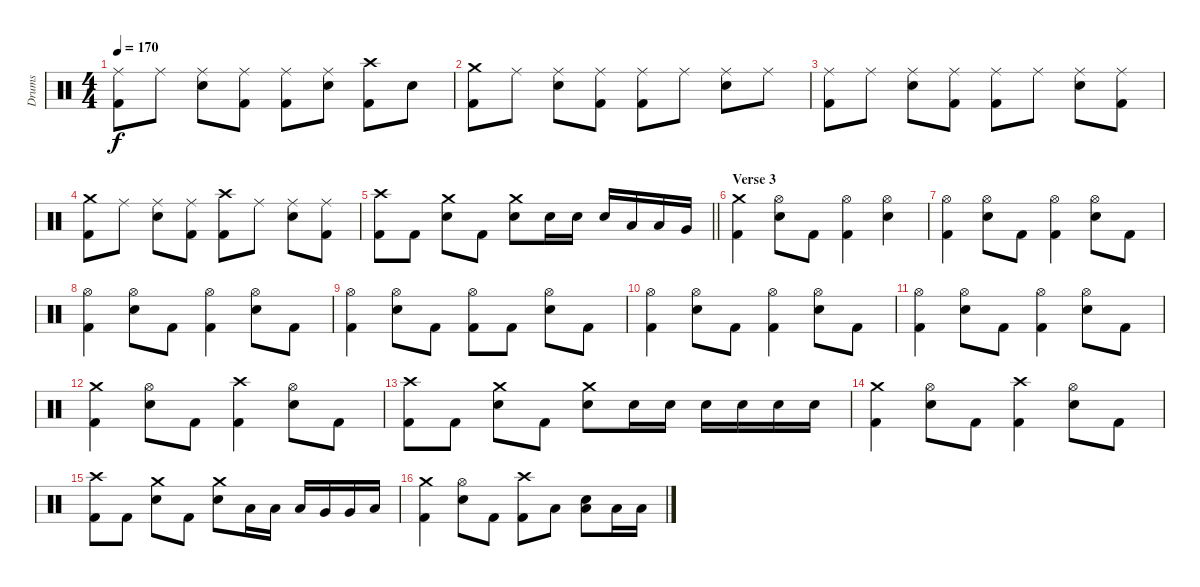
\track ("Drums" "Drums") {instrument percussion}
\staff {score}
\articulation defaults
\ts (4 4)
\tempo 170
\clef neutral
\ks c
("Ride (middle)" "Kick (hit) 2").8{dy f} "Ride (middle)".8 ("Ride (middle)" "Electric Snare (hit)").8 ("Ride (middle)" "Kick (hit) 2").8 ("Ride (middle)" "Kick (hit) 2").8 ("Ride (middle)" "Electric Snare (hit)").8 ("Crash high (hit)" "Kick (hit) 2").8 "Electric Snare (hit)".8 |
("Crash medium (hit)" "Kick (hit) 2").8 "Ride (middle)".8 ("Ride (middle)" "Electric Snare (hit)").8 ("Ride (middle)" "Kick (hit) 2").8 ("Ride (middle)" "Kick (hit) 2").8 "Ride (middle)".8 ("Ride (middle)" "Electric Snare (hit)").8 "Ride (middle)".8 |
("Ride (middle)" "Kick (hit) 2").8 "Ride (middle)".8 ("Ride (middle)" "Electric Snare (hit)").8 ("Ride (middle)" "Kick (hit) 2").8 ("Ride (middle)" "Kick (hit) 2").8 "Ride (middle)".8 ("Ride (middle)" "Electric Snare (hit)").8 ("Ride (middle)" "Kick (hit) 2").8 |
("Crash medium (hit)" "Kick (hit) 2").8 "Ride (middle)".8 ("Ride (middle)" "Electric Snare (hit)").8 ("Ride (middle)" "Kick (hit) 2").8 ("Crash high (hit)" "Kick (hit) 2").8 "Ride (middle)".8 ("Ride (middle)" "Electric Snare (hit)").8 ("Ride (middle)" "Kick (hit) 2").8 |
\barLineRight lightlight
("Crash high (hit)" "Kick (hit) 2").8 "Kick (hit) 2".8 ("Crash medium (hit)" "Electric Snare (hit)").8 "Kick (hit) 2".8 ("Crash medium (hit)" "Electric Snare (hit)").8 "Electric Snare (hit)".16 "Electric Snare (hit)".16 "Electric Snare (hit)".16 "Low Tom (hit)".16 "Low Tom (hit)".16 "Very Low Tom (hit)".16 |
\section ("" "Verse 3")
("Crash medium (hit)" "Kick (hit) 2").4 ("Hi-Hat (open)" "Electric Snare (hit)").8 "Kick (hit) 2".8 ("Hi-Hat (open)" "Kick (hit) 2").4 ("Hi-Hat (open)" "Electric Snare (hit)").4 |
("Hi-Hat (open)" "Kick (hit) 2").4 ("Hi-Hat (open)" "Electric Snare (hit)").8 "Kick (hit) 2".8 ("Hi-Hat (open)" "Kick (hit) 2").4 ("Hi-Hat (open)" "Electric Snare (hit)").8 "Kick (hit) 2".8 |
("Hi-Hat (open)" "Kick (hit) 2").4 ("Hi-Hat (open)" "Electric Snare (hit)").8 "Kick (hit) 2".8 ("Hi-Hat (open)" "Kick (hit) 2").4 ("Hi-Hat (open)" "Electric Snare (hit)").8 "Kick (hit) 2".8 |
("Hi-Hat (open)" "Kick (hit) 2").4 ("Hi-Hat (open)" "Electric Snare (hit)").8 "Kick (hit) 2".8 ("Hi-Hat (open)" "Kick (hit) 2").8 "Kick (hit) 2".8 ("Hi-Hat (open)" "Electric Snare (hit)").8 "Kick (hit) 2".8 |
("Hi-Hat (open)" "Kick (hit) 2").4 ("Hi-Hat (open)" "Electric Snare (hit)").8 "Kick (hit) 2".8 ("Hi-Hat (open)" "Kick (hit) 2").4 ("Hi-Hat (open)" "Electric Snare (hit)").8 "Kick (hit) 2".8 |
("Hi-Hat (open)" "Kick (hit) 2").4 ("Hi-Hat (open)" "Electric Snare (hit)").8 "Kick (hit) 2".8 ("Hi-Hat (open)" "Kick (hit) 2").4 ("Hi-Hat (open)" "Electric Snare (hit)").8 "Kick (hit) 2".8 |
("Crash medium (hit)" "Kick (hit) 2").4 ("Hi-Hat (open)" "Electric Snare (hit)").8 "Kick (hit) 2".8 ("Crash high (hit)" "Kick (hit) 2").4 ("Hi-Hat (open)" "Electric Snare (hit)").8 "Kick (hit) 2".8 |
("Crash high (hit)" "Kick (hit) 2").8 "Kick (hit) 2".8 ("Crash medium (hit)" "Electric Snare (hit)").8 "Kick (hit) 2".8 ("Crash medium (hit)" "Electric Snare (hit)").8 "Electric Snare (hit)".16 "Electric Snare (hit)".16 "Electric Snare (hit)".16 "Electric Snare (hit)".16 "Electric Snare (hit)".16 "Electric Snare (hit)".16 |
("Crash medium (hit)" "Kick (hit) 2").4 ("Hi-Hat (open)" "Electric Snare (hit)").8 "Kick (hit) 2".8 ("Crash high (hit)" "Kick (hit) 2").4 ("Hi-Hat (open)" "Electric Snare (hit)").8 "Kick (hit) 2".8 |
("Crash high (hit)" "Kick (hit) 2").8 "Kick (hit) 2".8 ("Crash medium (hit)" "Electric Snare (hit)").8 "Kick (hit) 2".8 ("Crash medium (hit)" "Electric Snare (hit)").8 "Low Tom (hit)".16 "Low Tom (hit)".16 "Low Tom (hit)".16 "Very Low Tom (hit)".16 "Very Low Tom (hit)".16 "Low Floor Tom (hit)".16 |
("Crash medium (hit)" "Kick (hit) 2").4 ("Hi-Hat (open)" "Electric Snare (hit)").8 "Kick (hit) 2".8 ("Crash high (hit)" "Kick (hit) 2").8 "Low Floor Tom (hit)".8 ("Low Floor Tom (hit)" "Electric Snare (hit)").8 "Low Floor Tom (hit)".16 "Low Floor Tom (hit)".16
